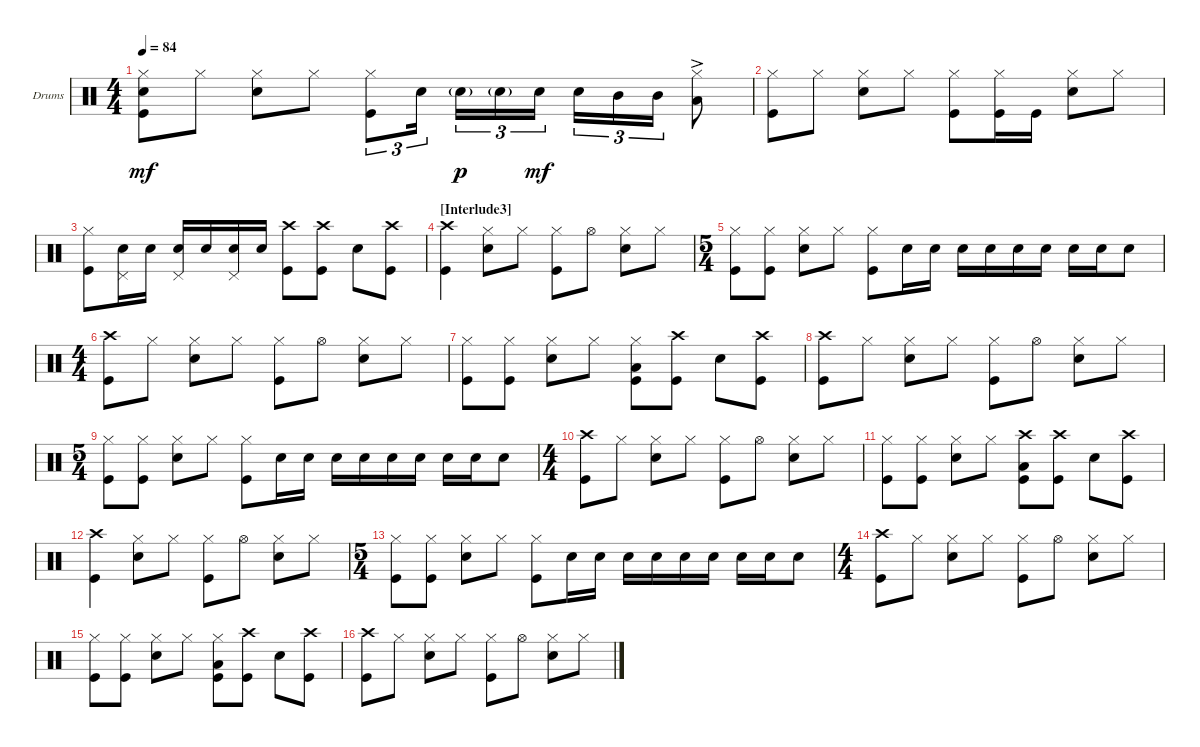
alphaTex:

\defaultSystemsLayout 4
\bracketExtendMode groupsimilarinstruments
\firstSystemTrackNameOrientation horizontal
\otherSystemsTrackNameOrientation horizontal
\track ("Drumkit" "Drums") {instrument percussion}
\staff {score}
\articulation defaults
\ts (4 4)
\tempo 84
\clef neutral
\ks aminor
("Hi-Hat (closed)" "Kick (hit)" "Snare (hit) 2").8{dy mf} "Hi-Hat (closed)".8 ("Hi-Hat (closed)" "Snare (hit) 2").8 "Hi-Hat (closed)".8 ("Kick (hit)" "Hi-Hat (closed)").8{tu (3 2)} "Snare (hit) 2".16{tu (3 2)} "Snare (hit) 2"{g}.16{tu (3 2) dy p} "Snare (hit) 2"{g}.16{tu (3 2)} "Snare (hit) 2".16{tu (3 2) dy mf} "Snare (hit) 2".16{tu (3 2)} "Mid Tom (hit)".16{tu (3 2)} "Mid Tom (hit)".16{tu (3 2)} ("Low Tom (hit)"{ac} "Hi-Hat (closed)").8 |
("Hi-Hat (closed)" "Kick (hit)").8 "Hi-Hat (closed)".8 ("Hi-Hat (closed)" "Snare (hit) 2").8 "Hi-Hat (closed)".8 ("Kick (hit)" "Hi-Hat (closed)").8 ("Kick (hit)" "Hi-Hat (closed)").16 "Kick (hit)".16 ("Snare (hit) 2" "Hi-Hat (closed)").8 "Hi-Hat (closed)".8 |
("Kick (hit)" "Hi-Hat (closed)").8 ("Snare (hit) 2" "Pedal Hi-Hat (hit)").16 "Snare (hit) 2".16 ("Snare (hit) 2" "Pedal Hi-Hat (hit)").16 "Snare (hit) 2".16 ("Snare (hit) 2" "Pedal Hi-Hat (hit)").16 "Snare (hit) 2".16 ("Kick (hit)" "Crash high (hit)").8 ("Kick (hit)" "Crash high (hit)").8 "Snare (hit) 2".8 ("Kick (hit)" "Crash high (hit)").8 |
\section ("" "[Interlude3]")
("Kick (hit)" "Crash high (hit)").4 ("Hi-Hat (closed)" "Snare (hit) 2").8 "Hi-Hat (closed)".8 ("Hi-Hat (closed)" "Kick (hit)").8 "Hi-Hat (open)".8 ("Hi-Hat (closed)" "Snare (hit) 2").8 "Hi-Hat (closed)".8 |
\ts (5 4)
("Hi-Hat (closed)" "Kick (hit)").8 ("Hi-Hat (closed)" "Kick (hit)").8 ("Hi-Hat (closed)" "Snare (hit) 2").8 "Hi-Hat (closed)".8 ("Hi-Hat (closed)" "Kick (hit)").8 "Snare (hit) 2".16 "Snare (hit) 2".16 "Snare (hit) 2".16 "Snare (hit) 2".16 "Snare (hit) 2".16 "Snare (hit) 2".16 "Snare (hit) 2".16 "Snare (hit) 2".16 "Snare (hit) 2".8 |
\ts (4 4)
("Kick (hit)" "Crash high (hit)").8 "Hi-Hat (closed)".8 ("Hi-Hat (closed)" "Snare (hit) 2").8 "Hi-Hat (closed)".8 ("Hi-Hat (closed)" "Kick (hit)").8 "Hi-Hat (open)".8 ("Hi-Hat (closed)" "Snare (hit) 2").8 "Hi-Hat (closed)".8 |
("Hi-Hat (closed)" "Kick (hit)").8 ("Hi-Hat (closed)" "Kick (hit)").8 ("Hi-Hat (closed)" "Snare (hit) 2").8 "Hi-Hat (closed)".8 ("Hi-Hat (closed)" "Kick (hit)" "Low Tom (hit)").8 ("Crash high (hit)" "Kick (hit)").8 "Snare (hit) 2".8 ("Crash high (hit)" "Kick (hit)").8 |
("Kick (hit)" "Crash high (hit)").8 "Hi-Hat (closed)".8 ("Hi-Hat (closed)" "Snare (hit) 2").8 "Hi-Hat (closed)".8 ("Hi-Hat (closed)" "Kick (hit)").8 "Hi-Hat (open)".8 ("Hi-Hat (closed)" "Snare (hit) 2").8 "Hi-Hat (closed)".8 |
\ts (5 4)
("Hi-Hat (closed)" "Kick (hit)").8 ("Hi-Hat (closed)" "Kick (hit)").8 ("Hi-Hat (closed)" "Snare (hit) 2").8 "Hi-Hat (closed)".8 ("Hi-Hat (closed)" "Kick (hit)").8 "Snare (hit) 2".16 "Snare (hit) 2".16 "Snare (hit) 2".16 "Snare (hit) 2".16 "Snare (hit) 2".16 "Snare (hit) 2".16 "Snare (hit) 2".16 "Snare (hit) 2".16 "Snare (hit) 2".8 |
\ts (4 4)
("Kick (hit)" "Crash high (hit)").8 "Hi-Hat (closed)".8 ("Hi-Hat (closed)" "Snare (hit) 2").8 "Hi-Hat (closed)".8 ("Hi-Hat (closed)" "Kick (hit)").8 "Hi-Hat (open)".8 ("Hi-Hat (closed)" "Snare (hit) 2").8 "Hi-Hat (closed)".8 |
("Hi-Hat (closed)" "Kick (hit)").8 ("Hi-Hat (closed)" "Kick (hit)").8 ("Hi-Hat (closed)" "Snare (hit) 2").8 "Hi-Hat (closed)".8 ("Kick (hit)" "Crash high (hit)" "Low Tom (hit)").8 ("Crash high (hit)" "Kick (hit)").8 "Snare (hit) 2".8 ("Crash high (hit)" "Kick (hit)").8 |
("Kick (hit)" "Crash high (hit)").4 ("Hi-Hat (closed)" "Snare (hit) 2").8 "Hi-Hat (closed)".8 ("Hi-Hat (closed)" "Kick (hit)").8 "Hi-Hat (open)".8 ("Hi-Hat (closed)" "Snare (hit) 2").8 "Hi-Hat (closed)".8 |
\ts (5 4)
("Hi-Hat (closed)" "Kick (hit)").8 ("Hi-Hat (closed)" "Kick (hit)").8 ("Hi-Hat (closed)" "Snare (hit) 2").8 "Hi-Hat (closed)".8 ("Hi-Hat (closed)" "Kick (hit)").8 "Snare (hit) 2".16 "Snare (hit) 2".16 "Snare (hit) 2".16 "Snare (hit) 2".16 "Snare (hit) 2".16 "Snare (hit) 2".16 "Snare (hit) 2".16 "Snare (hit) 2".16 "Snare (hit) 2".8 |
\ts (4 4)
("Kick (hit)" "Crash high (hit)").8 "Hi-Hat (closed)".8 ("Hi-Hat (closed)" "Snare (hit) 2").8 "Hi-Hat (closed)".8 ("Hi-Hat (closed)" "Kick (hit)").8 "Hi-Hat (open)".8 ("Hi-Hat (closed)" "Snare (hit) 2").8 "Hi-Hat (closed)".8 |
("Hi-Hat (closed)" "Kick (hit)").8 ("Hi-Hat (closed)" "Kick (hit)").8 ("Hi-Hat (closed)" "Snare (hit) 2").8 "Hi-Hat (closed)".8 ("Hi-Hat (closed)" "Kick (hit)" "Low Tom (hit)").8 ("Crash high (hit)" "Kick (hit)").8 "Snare (hit) 2".8 ("Crash high (hit)" "Kick (hit)").8 |
("Kick (hit)" "Crash high (hit)").8 "Hi-Hat (closed)".8 ("Hi-Hat (closed)" "Snare (hit) 2").8 "Hi-Hat (closed)".8 ("Hi-Hat (closed)" "Kick (hit)").8 "Hi-Hat (open)".8 ("Hi-Hat (closed)" "Snare (hit) 2").8 "Hi-Hat (closed)".8
